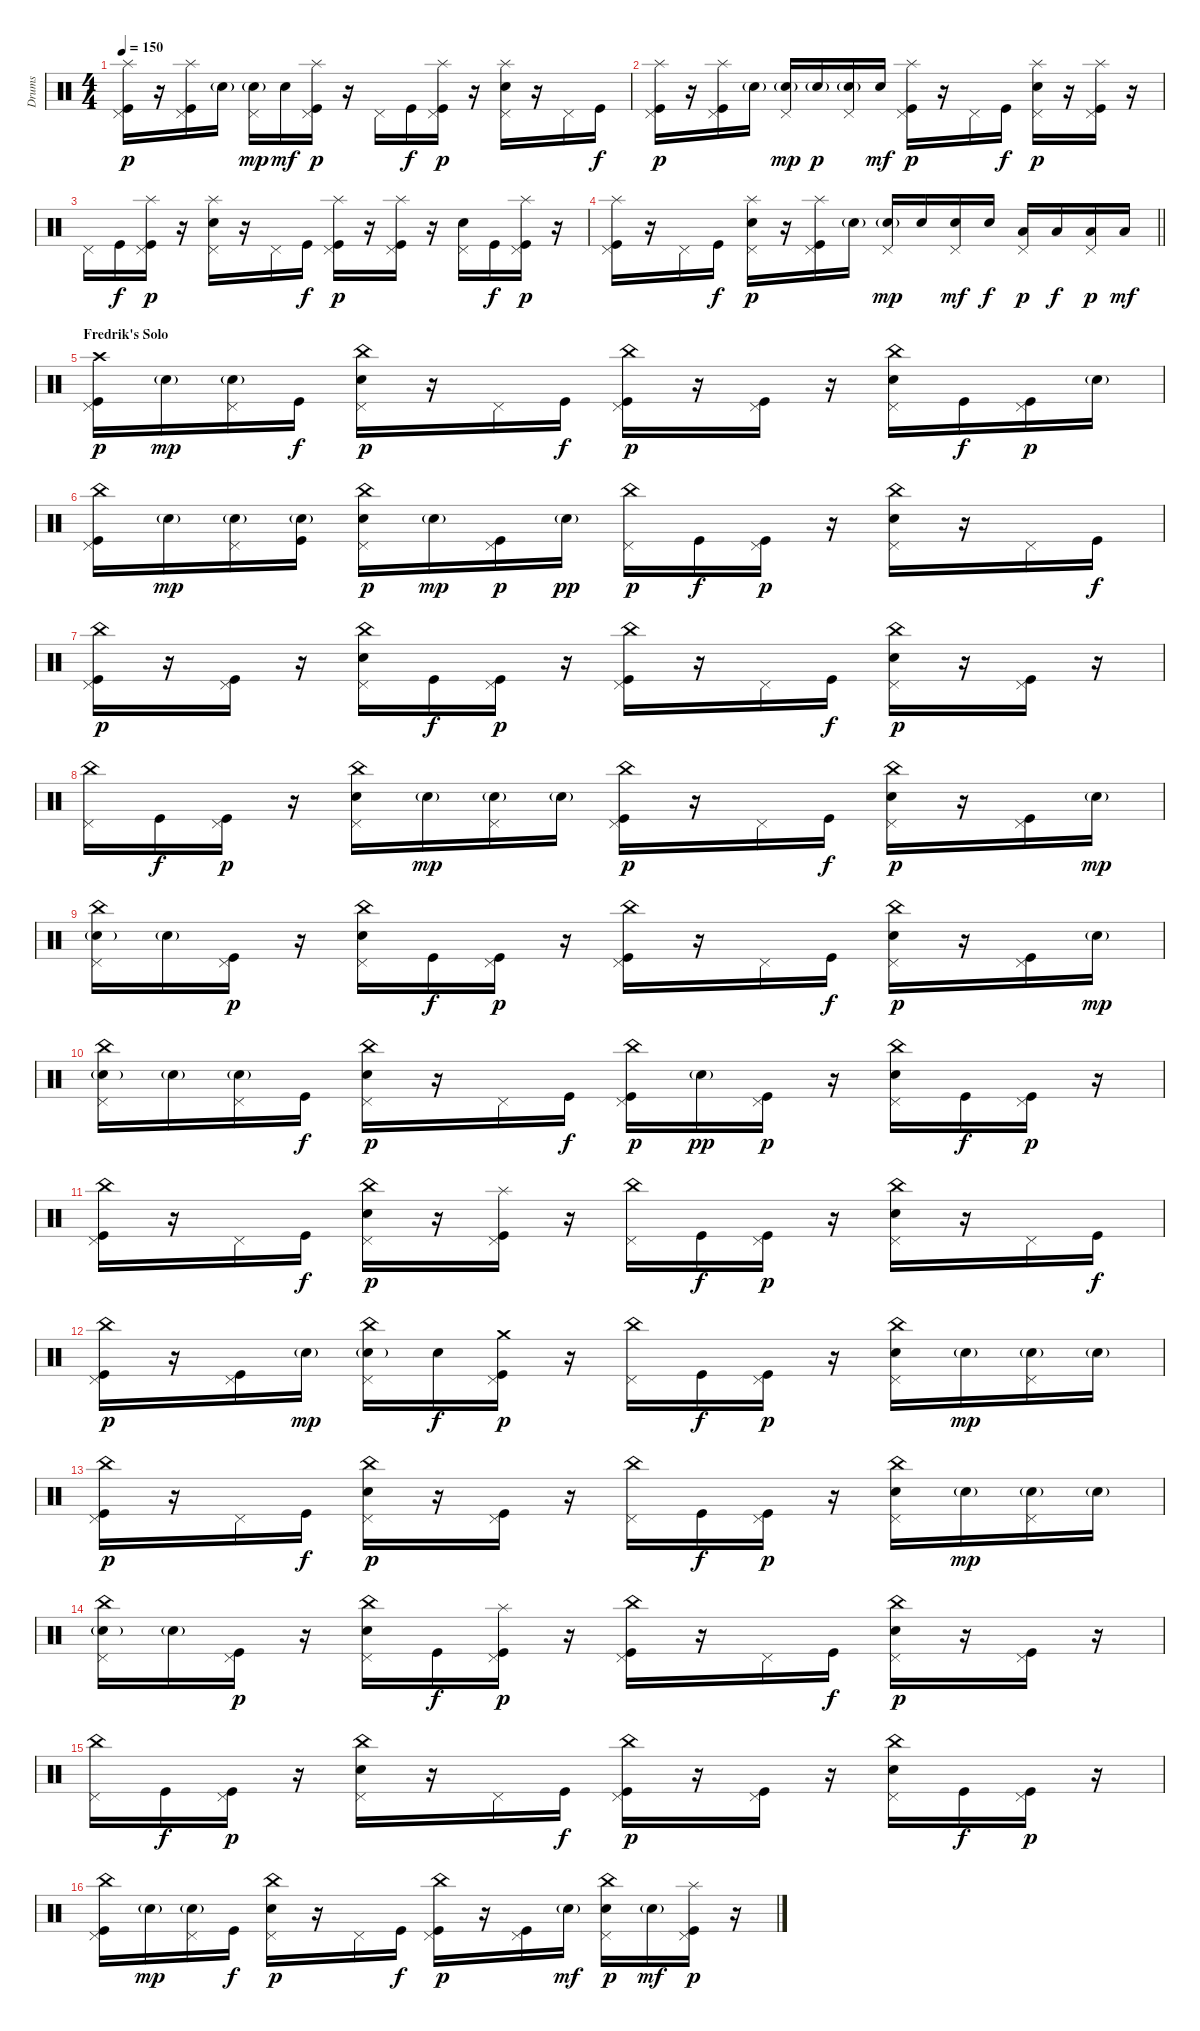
\track ("Drums" "Drums") {instrument percussion}
\staff {score}
\articulation defaults
\ts (4 4)
\tempo 150
\clef neutral
\ks c
("Splash (hit)" "Pedal Hi-Hat (hit)" "Kick (hit)").16{dy p} r.16 ("Splash (hit)" "Pedal Hi-Hat (hit)" "Kick (hit)").16 "Electric Snare (hit)"{g}.16 ("Pedal Hi-Hat (hit)" "Electric Snare (hit)"{g}).16{dy mp} "Electric Snare (hit)".16{dy mf} ("Splash (hit)" "Pedal Hi-Hat (hit)" "Kick (hit)").16{dy p} r.16 "Pedal Hi-Hat (hit)".16 "Kick (hit)".16{dy f} ("Splash (hit)" "Pedal Hi-Hat (hit)" "Kick (hit)").16{dy p} r.16 ("Splash (hit)" "Pedal Hi-Hat (hit)" "Electric Snare (hit)").16 r.16 "Pedal Hi-Hat (hit)".16 "Kick (hit)".16{dy f} |
("Splash (hit)" "Pedal Hi-Hat (hit)" "Kick (hit)").16{dy p} r.16 ("Splash (hit)" "Pedal Hi-Hat (hit)" "Kick (hit)").16 "Electric Snare (hit)"{g}.16 ("Pedal Hi-Hat (hit)" "Electric Snare (hit)"{g}).16{dy mp} "Electric Snare (hit)"{g}.16{dy p} ("Pedal Hi-Hat (hit)" "Electric Snare (hit)"{g}).16 "Electric Snare (hit)".16{dy mf} ("Splash (hit)" "Pedal Hi-Hat (hit)" "Kick (hit)").16{dy p} r.16 "Pedal Hi-Hat (hit)".16 "Kick (hit)".16{dy f} ("Splash (hit)" "Pedal Hi-Hat (hit)" "Electric Snare (hit)").16{dy p} r.16 ("Splash (hit)" "Pedal Hi-Hat (hit)" "Kick (hit)").16 r.16 |
"Pedal Hi-Hat (hit)".16 "Kick (hit)".16{dy f} ("Splash (hit)" "Pedal Hi-Hat (hit)" "Kick (hit)").16{dy p} r.16 ("Splash (hit)" "Pedal Hi-Hat (hit)" "Electric Snare (hit)").16 r.16 "Pedal Hi-Hat (hit)".16 "Kick (hit)".16{dy f} ("Splash (hit)" "Pedal Hi-Hat (hit)" "Kick (hit)").16{dy p} r.16 ("Splash (hit)" "Pedal Hi-Hat (hit)" "Kick (hit)").16 r.16 ("Pedal Hi-Hat (hit)" "Electric Snare (hit)").16 "Kick (hit)".16{dy f} ("Splash (hit)" "Pedal Hi-Hat (hit)" "Kick (hit)").16{dy p} r.16 |
\barLineRight lightlight
("Splash (hit)" "Pedal Hi-Hat (hit)" "Kick (hit)").16 r.16 "Pedal Hi-Hat (hit)".16 "Kick (hit)".16{dy f} ("Splash (hit)" "Pedal Hi-Hat (hit)" "Electric Snare (hit)").16{dy p} r.16 ("Splash (hit)" "Pedal Hi-Hat (hit)" "Kick (hit)").16 "Electric Snare (hit)"{g}.16 ("Pedal Hi-Hat (hit)" "Electric Snare (hit)"{g}).16{dy mp} "Electric Snare (hit)".16 ("Pedal Hi-Hat (hit)" "Electric Snare (hit)").16{dy mf} "Electric Snare (hit)".16{dy f} ("Pedal Hi-Hat (hit)" "Low Floor Tom (hit)").16{dy p} "Low Floor Tom (hit)".16{dy f} ("Pedal Hi-Hat (hit)" "Low Floor Tom (hit)").16{dy p} "Low Floor Tom (hit)".16{dy mf} |
\section ("" "Fredrik's Solo")
("Crash high (hit)" "Pedal Hi-Hat (hit)" "Kick (hit)").16{dy p} "Electric Snare (hit)"{g}.16{dy mp} ("Pedal Hi-Hat (hit)" "Electric Snare (hit)"{g}).16 "Kick (hit)".16{dy f} ("China (hit)" "Pedal Hi-Hat (hit)" "Electric Snare (hit)").16{dy p} r.16 "Pedal Hi-Hat (hit)".16 "Kick (hit)".16{dy f} ("China (hit)" "Pedal Hi-Hat (hit)" "Kick (hit)").16{dy p} r.16 ("Pedal Hi-Hat (hit)" "Kick (hit)").16 r.16 ("China (hit)" "Pedal Hi-Hat (hit)" "Electric Snare (hit)").16 "Kick (hit)".16{dy f} ("Pedal Hi-Hat (hit)" "Kick (hit)").16{dy p} "Electric Snare (hit)"{g}.16 |
("China (hit)" "Pedal Hi-Hat (hit)" "Kick (hit)").16 "Electric Snare (hit)"{g}.16{dy mp} ("Pedal Hi-Hat (hit)" "Electric Snare (hit)"{g}).16 ("Electric Snare (hit)"{g} "Kick (hit)").16 ("China (hit)" "Pedal Hi-Hat (hit)" "Electric Snare (hit)").16{dy p} "Electric Snare (hit)"{g}.16{dy mp} ("Pedal Hi-Hat (hit)" "Kick (hit)").16{dy p} "Electric Snare (hit)"{g}.16{dy pp} ("China (hit)" "Pedal Hi-Hat (hit)").16{dy p} "Kick (hit)".16{dy f} ("Pedal Hi-Hat (hit)" "Kick (hit)").16{dy p} r.16 ("China (hit)" "Pedal Hi-Hat (hit)" "Electric Snare (hit)").16 r.16 "Pedal Hi-Hat (hit)".16 "Kick (hit)".16{dy f} |
("China (hit)" "Pedal Hi-Hat (hit)" "Kick (hit)").16{dy p} r.16 ("Pedal Hi-Hat (hit)" "Kick (hit)").16 r.16 ("China (hit)" "Pedal Hi-Hat (hit)" "Electric Snare (hit)").16 "Kick (hit)".16{dy f} ("Pedal Hi-Hat (hit)" "Kick (hit)").16{dy p} r.16 ("China (hit)" "Pedal Hi-Hat (hit)" "Kick (hit)").16 r.16 "Pedal Hi-Hat (hit)".16 "Kick (hit)".16{dy f} ("China (hit)" "Pedal Hi-Hat (hit)" "Electric Snare (hit)").16{dy p} r.16 ("Pedal Hi-Hat (hit)" "Kick (hit)").16 r.16 |
("China (hit)" "Pedal Hi-Hat (hit)").16 "Kick (hit)".16{dy f} ("Pedal Hi-Hat (hit)" "Kick (hit)").16{dy p} r.16 ("China (hit)" "Pedal Hi-Hat (hit)" "Electric Snare (hit)").16 "Electric Snare (hit)"{g}.16{dy mp} ("Pedal Hi-Hat (hit)" "Electric Snare (hit)"{g}).16 "Electric Snare (hit)"{g}.16 ("China (hit)" "Pedal Hi-Hat (hit)" "Kick (hit)").16{dy p} r.16 "Pedal Hi-Hat (hit)".16 "Kick (hit)".16{dy f} ("China (hit)" "Pedal Hi-Hat (hit)" "Electric Snare (hit)").16{dy p} r.16 ("Pedal Hi-Hat (hit)" "Kick (hit)").16 "Electric Snare (hit)"{g}.16{dy mp} |
("China (hit)" "Pedal Hi-Hat (hit)" "Electric Snare (hit)"{g}).16 "Electric Snare (hit)"{g}.16 ("Pedal Hi-Hat (hit)" "Kick (hit)").16{dy p} r.16 ("China (hit)" "Pedal Hi-Hat (hit)" "Electric Snare (hit)").16 "Kick (hit)".16{dy f} ("Pedal Hi-Hat (hit)" "Kick (hit)").16{dy p} r.16 ("China (hit)" "Pedal Hi-Hat (hit)" "Kick (hit)").16 r.16 "Pedal Hi-Hat (hit)".16 "Kick (hit)".16{dy f} ("China (hit)" "Pedal Hi-Hat (hit)" "Electric Snare (hit)").16{dy p} r.16 ("Pedal Hi-Hat (hit)" "Kick (hit)").16 "Electric Snare (hit)"{g}.16{dy mp} |
("China (hit)" "Pedal Hi-Hat (hit)" "Electric Snare (hit)"{g}).16 "Electric Snare (hit)"{g}.16 ("Pedal Hi-Hat (hit)" "Electric Snare (hit)"{g}).16 "Kick (hit)".16{dy f} ("China (hit)" "Pedal Hi-Hat (hit)" "Electric Snare (hit)").16{dy p} r.16 "Pedal Hi-Hat (hit)".16 "Kick (hit)".16{dy f} ("China (hit)" "Pedal Hi-Hat (hit)" "Kick (hit)").16{dy p} "Electric Snare (hit)"{g}.16{dy pp} ("Pedal Hi-Hat (hit)" "Kick (hit)").16{dy p} r.16 ("China (hit)" "Pedal Hi-Hat (hit)" "Electric Snare (hit)").16 "Kick (hit)".16{dy f} ("Pedal Hi-Hat (hit)" "Kick (hit)").16{dy p} r.16 |
("China (hit)" "Pedal Hi-Hat (hit)" "Kick (hit)").16 r.16 "Pedal Hi-Hat (hit)".16 "Kick (hit)".16{dy f} ("China (hit)" "Pedal Hi-Hat (hit)" "Electric Snare (hit)").16{dy p} r.16 ("Splash (hit)" "Pedal Hi-Hat (hit)" "Kick (hit)").16 r.16 ("China (hit)" "Pedal Hi-Hat (hit)").16 "Kick (hit)".16{dy f} ("Pedal Hi-Hat (hit)" "Kick (hit)").16{dy p} r.16 ("China (hit)" "Pedal Hi-Hat (hit)" "Electric Snare (hit)").16 r.16 "Pedal Hi-Hat (hit)".16 "Kick (hit)".16{dy f} |
("China (hit)" "Pedal Hi-Hat (hit)" "Kick (hit)").16{dy p} r.16 ("Pedal Hi-Hat (hit)" "Kick (hit)").16 "Electric Snare (hit)"{g}.16{dy mp} ("China (hit)" "Pedal Hi-Hat (hit)" "Electric Snare (hit)"{g}).16 "Electric Snare (hit)".16{dy f} ("Crash medium (hit)" "Pedal Hi-Hat (hit)" "Kick (hit)").16{dy p} r.16 ("China (hit)" "Pedal Hi-Hat (hit)").16 "Kick (hit)".16{dy f} ("Pedal Hi-Hat (hit)" "Kick (hit)").16{dy p} r.16 ("China (hit)" "Pedal Hi-Hat (hit)" "Electric Snare (hit)").16 "Electric Snare (hit)"{g}.16{dy mp} ("Pedal Hi-Hat (hit)" "Electric Snare (hit)"{g}).16 "Electric Snare (hit)"{g}.16 |
("China (hit)" "Pedal Hi-Hat (hit)" "Kick (hit)").16{dy p} r.16 "Pedal Hi-Hat (hit)".16 "Kick (hit)".16{dy f} ("China (hit)" "Pedal Hi-Hat (hit)" "Electric Snare (hit)").16{dy p} r.16 ("Pedal Hi-Hat (hit)" "Kick (hit)").16 r.16 ("China (hit)" "Pedal Hi-Hat (hit)").16 "Kick (hit)".16{dy f} ("Pedal Hi-Hat (hit)" "Kick (hit)").16{dy p} r.16 ("China (hit)" "Pedal Hi-Hat (hit)" "Electric Snare (hit)").16 "Electric Snare (hit)"{g}.16{dy mp} ("Pedal Hi-Hat (hit)" "Electric Snare (hit)"{g}).16 "Electric Snare (hit)"{g}.16 |
("China (hit)" "Pedal Hi-Hat (hit)" "Electric Snare (hit)"{g}).16 "Electric Snare (hit)"{g}.16 ("Pedal Hi-Hat (hit)" "Kick (hit)").16{dy p} r.16 ("China (hit)" "Pedal Hi-Hat (hit)" "Electric Snare (hit)").16 "Kick (hit)".16{dy f} ("Splash (hit)" "Pedal Hi-Hat (hit)" "Kick (hit)").16{dy p} r.16 ("China (hit)" "Pedal Hi-Hat (hit)" "Kick (hit)").16 r.16 "Pedal Hi-Hat (hit)".16 "Kick (hit)".16{dy f} ("China (hit)" "Pedal Hi-Hat (hit)" "Electric Snare (hit)").16{dy p} r.16 ("Pedal Hi-Hat (hit)" "Kick (hit)").16 r.16 |
("China (hit)" "Pedal Hi-Hat (hit)").16 "Kick (hit)".16{dy f} ("Pedal Hi-Hat (hit)" "Kick (hit)").16{dy p} r.16 ("China (hit)" "Pedal Hi-Hat (hit)" "Electric Snare (hit)").16 r.16 "Pedal Hi-Hat (hit)".16 "Kick (hit)".16{dy f} ("China (hit)" "Pedal Hi-Hat (hit)" "Kick (hit)").16{dy p} r.16 ("Pedal Hi-Hat (hit)" "Kick (hit)").16 r.16 ("China (hit)" "Pedal Hi-Hat (hit)" "Electric Snare (hit)").16 "Kick (hit)".16{dy f} ("Pedal Hi-Hat (hit)" "Kick (hit)").16{dy p} r.16 |
("China (hit)" "Pedal Hi-Hat (hit)" "Kick (hit)").16 "Electric Snare (hit)"{g}.16{dy mp} ("Pedal Hi-Hat (hit)" "Electric Snare (hit)"{g}).16 "Kick (hit)".16{dy f} ("China (hit)" "Pedal Hi-Hat (hit)" "Electric Snare (hit)").16{dy p} r.16 "Pedal Hi-Hat (hit)".16 "Kick (hit)".16{dy f} ("China (hit)" "Pedal Hi-Hat (hit)" "Kick (hit)").16{dy p} r.16 ("Pedal Hi-Hat (hit)" "Kick (hit)").16 "Electric Snare (hit)"{g}.16{dy mf} ("China (hit)" "Pedal Hi-Hat (hit)" "Electric Snare (hit)").16{dy p} "Electric Snare (hit)"{g}.16{dy mf} ("Splash (hit)" "Pedal Hi-Hat (hit)" "Kick (hit)").16{dy p} r.16
